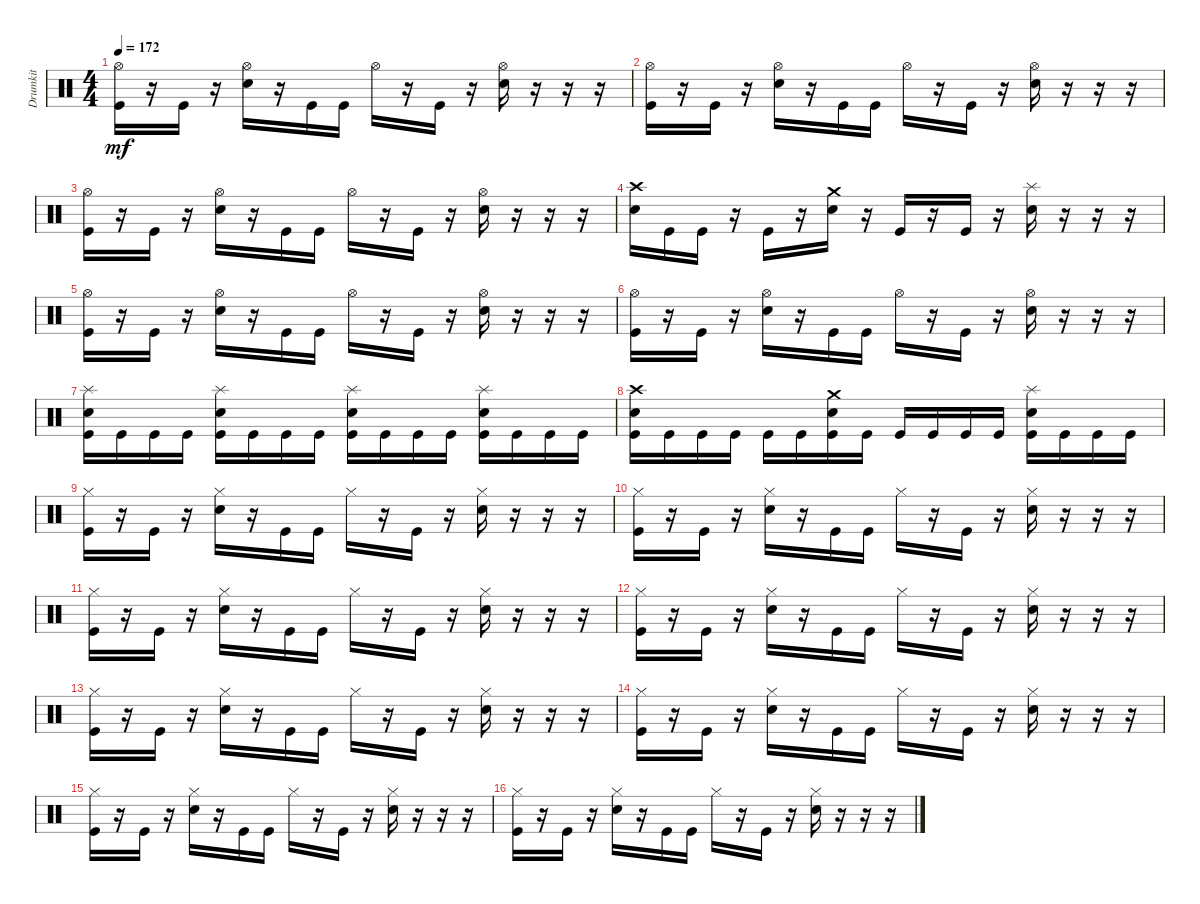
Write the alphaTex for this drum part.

\track ("Drumkit" "Drumkit") {instrument percussion}
\staff {score}
\articulation defaults
\ts (4 4)
\tempo 172
\clef neutral
\ks c
("Hi-Hat (open)" "Kick (hit)").16{dy mf} r.16 "Kick (hit)".16 r.16 ("Hi-Hat (open)" "Snare (hit) 2").16 r.16 "Kick (hit)".16 "Kick (hit)".16 "Hi-Hat (open)".16 r.16 "Kick (hit)".16 r.16 ("Hi-Hat (open)" "Snare (hit) 2").16 r.16 r.16 r.16 |
("Hi-Hat (open)" "Kick (hit)").16 r.16 "Kick (hit)".16 r.16 ("Hi-Hat (open)" "Snare (hit) 2").16 r.16 "Kick (hit)".16 "Kick (hit)".16 "Hi-Hat (open)".16 r.16 "Kick (hit)".16 r.16 ("Hi-Hat (open)" "Snare (hit) 2").16 r.16 r.16 r.16 |
("Hi-Hat (open)" "Kick (hit)").16 r.16 "Kick (hit)".16 r.16 ("Hi-Hat (open)" "Snare (hit) 2").16 r.16 "Kick (hit)".16 "Kick (hit)".16 "Hi-Hat (open)".16 r.16 "Kick (hit)".16 r.16 ("Hi-Hat (open)" "Snare (hit) 2").16 r.16 r.16 r.16 |
("Crash high (hit)" "Snare (hit) 2").16 "Kick (hit)".16 "Kick (hit)".16 r.16 "Kick (hit)".16 r.16 ("Crash medium (hit)" "Snare (hit) 2").16 r.16 "Kick (hit)".16 r.16 "Kick (hit)".16 r.16 ("Snare (hit) 2" "Splash (hit)").16 r.16 r.16 r.16 |
("Hi-Hat (open)" "Kick (hit)").16 r.16 "Kick (hit)".16 r.16 ("Hi-Hat (open)" "Snare (hit) 2").16 r.16 "Kick (hit)".16 "Kick (hit)".16 "Hi-Hat (open)".16 r.16 "Kick (hit)".16 r.16 ("Hi-Hat (open)" "Snare (hit) 2").16 r.16 r.16 r.16 |
("Hi-Hat (open)" "Kick (hit)").16 r.16 "Kick (hit)".16 r.16 ("Hi-Hat (open)" "Snare (hit) 2").16 r.16 "Kick (hit)".16 "Kick (hit)".16 "Hi-Hat (open)".16 r.16 "Kick (hit)".16 r.16 ("Hi-Hat (open)" "Snare (hit) 2").16 r.16 r.16 r.16 |
("Kick (hit)" "Snare (hit) 2" "Splash (hit)").16 "Kick (hit)".16 "Kick (hit)".16 "Kick (hit)".16 ("Snare (hit) 2" "Kick (hit)" "Splash (hit)").16 "Kick (hit)".16 "Kick (hit)".16 "Kick (hit)".16 ("Kick (hit)" "Snare (hit) 2" "Splash (hit)").16 "Kick (hit)".16 "Kick (hit)".16 "Kick (hit)".16 ("Snare (hit) 2" "Kick (hit)" "Splash (hit)").16 "Kick (hit)".16 "Kick (hit)".16 "Kick (hit)".16 |
("Crash high (hit)" "Snare (hit) 2" "Kick (hit)").16 "Kick (hit)".16 "Kick (hit)".16 "Kick (hit)".16 "Kick (hit)".16 "Kick (hit)".16 ("Crash medium (hit)" "Snare (hit) 2" "Kick (hit)").16 "Kick (hit)".16 "Kick (hit)".16 "Kick (hit)".16 "Kick (hit)".16 "Kick (hit)".16 ("Snare (hit) 2" "Splash (hit)" "Kick (hit)").16 "Kick (hit)".16 "Kick (hit)".16 "Kick (hit)".16 |
("Hi-Hat (closed)" "Kick (hit)").16 r.16 "Kick (hit)".16 r.16 ("Hi-Hat (closed)" "Snare (hit) 2").16 r.16 "Kick (hit)".16 "Kick (hit)".16 "Hi-Hat (closed)".16 r.16 "Kick (hit)".16 r.16 ("Hi-Hat (closed)" "Snare (hit) 2").16 r.16 r.16 r.16 |
("Hi-Hat (closed)" "Kick (hit)").16 r.16 "Kick (hit)".16 r.16 ("Hi-Hat (closed)" "Snare (hit) 2").16 r.16 "Kick (hit)".16 "Kick (hit)".16 "Hi-Hat (closed)".16 r.16 "Kick (hit)".16 r.16 ("Hi-Hat (closed)" "Snare (hit) 2").16 r.16 r.16 r.16 |
("Hi-Hat (closed)" "Kick (hit)").16 r.16 "Kick (hit)".16 r.16 ("Hi-Hat (closed)" "Snare (hit) 2").16 r.16 "Kick (hit)".16 "Kick (hit)".16 "Hi-Hat (closed)".16 r.16 "Kick (hit)".16 r.16 ("Hi-Hat (closed)" "Snare (hit) 2").16 r.16 r.16 r.16 |
("Hi-Hat (closed)" "Kick (hit)").16 r.16 "Kick (hit)".16 r.16 ("Hi-Hat (closed)" "Snare (hit) 2").16 r.16 "Kick (hit)".16 "Kick (hit)".16 "Hi-Hat (closed)".16 r.16 "Kick (hit)".16 r.16 ("Hi-Hat (closed)" "Snare (hit) 2").16 r.16 r.16 r.16 |
("Hi-Hat (closed)" "Kick (hit)").16 r.16 "Kick (hit)".16 r.16 ("Hi-Hat (closed)" "Snare (hit) 2").16 r.16 "Kick (hit)".16 "Kick (hit)".16 "Hi-Hat (closed)".16 r.16 "Kick (hit)".16 r.16 ("Hi-Hat (closed)" "Snare (hit) 2").16 r.16 r.16 r.16 |
("Hi-Hat (closed)" "Kick (hit)").16 r.16 "Kick (hit)".16 r.16 ("Hi-Hat (closed)" "Snare (hit) 2").16 r.16 "Kick (hit)".16 "Kick (hit)".16 "Hi-Hat (closed)".16 r.16 "Kick (hit)".16 r.16 ("Hi-Hat (closed)" "Snare (hit) 2").16 r.16 r.16 r.16 |
("Hi-Hat (closed)" "Kick (hit)").16 r.16 "Kick (hit)".16 r.16 ("Hi-Hat (closed)" "Snare (hit) 2").16 r.16 "Kick (hit)".16 "Kick (hit)".16 "Hi-Hat (closed)".16 r.16 "Kick (hit)".16 r.16 ("Hi-Hat (closed)" "Snare (hit) 2").16 r.16 r.16 r.16 |
("Hi-Hat (closed)" "Kick (hit)").16 r.16 "Kick (hit)".16 r.16 ("Hi-Hat (closed)" "Snare (hit) 2").16 r.16 "Kick (hit)".16 "Kick (hit)".16 "Hi-Hat (closed)".16 r.16 "Kick (hit)".16 r.16 ("Hi-Hat (closed)" "Snare (hit) 2").16 r.16 r.16 r.16
